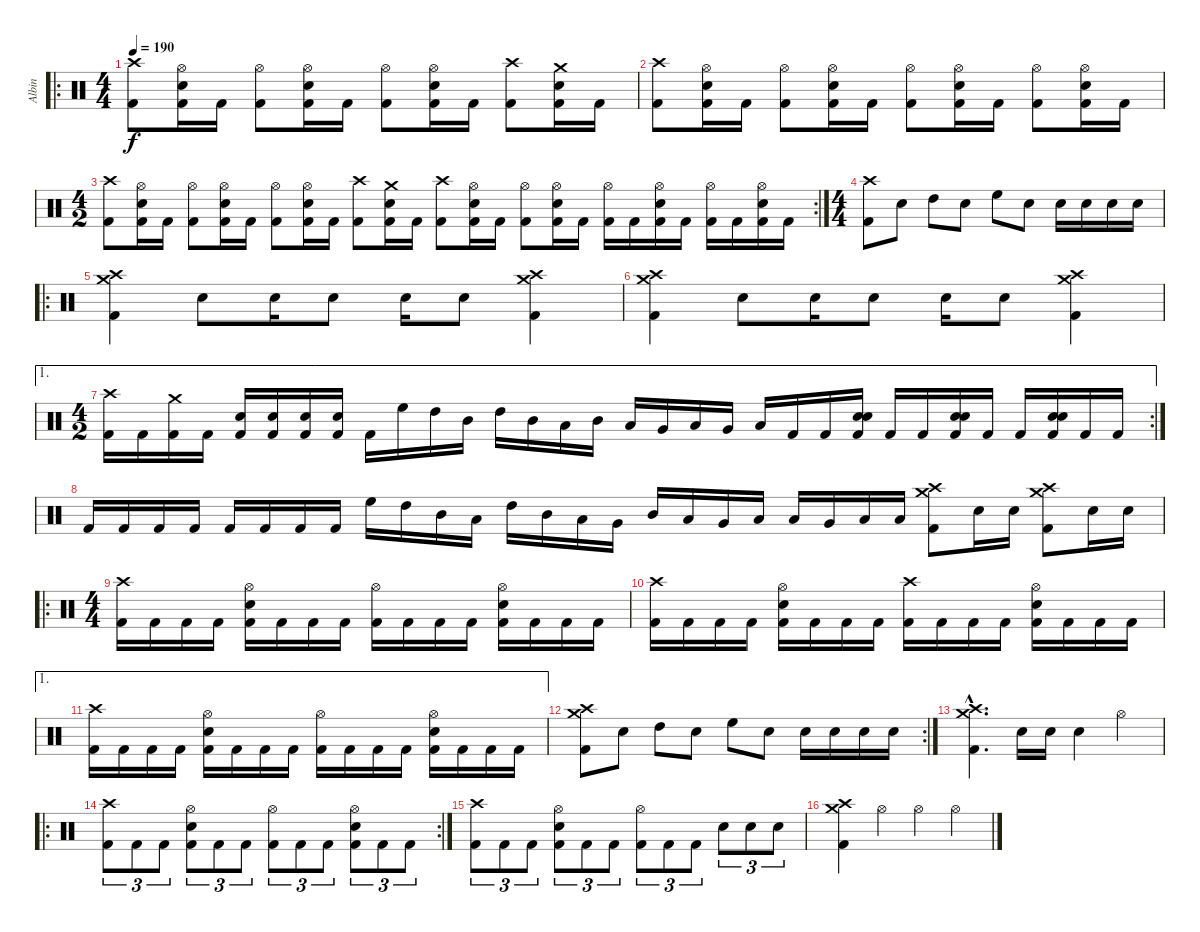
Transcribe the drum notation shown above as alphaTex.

\track ("Albin" "Albin") {instrument percussion}
\staff {score}
\articulation defaults
\ro
\ts (4 4)
\tempo 190
\clef neutral
\ks c
("Kick (hit) 2" "Crash high (hit)").8{dy f} ("Kick (hit) 2" "Electric Snare (hit)" "Hi-Hat (open)").16 "Kick (hit) 2".16 ("Kick (hit) 2" "Hi-Hat (open)").8 ("Kick (hit) 2" "Electric Snare (hit)" "Hi-Hat (open)").16 "Kick (hit) 2".16 ("Kick (hit) 2" "Hi-Hat (open)").8 ("Kick (hit) 2" "Electric Snare (hit)" "Hi-Hat (open)").16 "Kick (hit) 2".16 ("Kick (hit) 2" "Crash high (hit)").8 ("Kick (hit) 2" "Electric Snare (hit)" "Crash medium (hit)").16 "Kick (hit) 2".16 |
("Kick (hit) 2" "Crash high (hit)").8 ("Kick (hit) 2" "Electric Snare (hit)" "Hi-Hat (open)").16 "Kick (hit) 2".16 ("Kick (hit) 2" "Hi-Hat (open)").8 ("Kick (hit) 2" "Electric Snare (hit)" "Hi-Hat (open)").16 "Kick (hit) 2".16 ("Kick (hit) 2" "Hi-Hat (open)").8 ("Kick (hit) 2" "Electric Snare (hit)" "Hi-Hat (open)").16 "Kick (hit) 2".16 ("Kick (hit) 2" "Hi-Hat (open)").8 ("Kick (hit) 2" "Electric Snare (hit)" "Hi-Hat (open)").16 "Kick (hit) 2".16 |
\rc 2
\ts (4 2)
("Kick (hit) 2" "Crash high (hit)").8 ("Kick (hit) 2" "Electric Snare (hit)" "Hi-Hat (open)").16 "Kick (hit) 2".16 ("Kick (hit) 2" "Hi-Hat (open)").8 ("Kick (hit) 2" "Electric Snare (hit)" "Hi-Hat (open)").16 "Kick (hit) 2".16 ("Kick (hit) 2" "Hi-Hat (open)").8 ("Kick (hit) 2" "Electric Snare (hit)" "Hi-Hat (open)").16 "Kick (hit) 2".16 ("Kick (hit) 2" "Crash high (hit)").8 ("Kick (hit) 2" "Electric Snare (hit)" "Crash medium (hit)").16 "Kick (hit) 2".16 ("Kick (hit) 2" "Crash high (hit)").8 ("Kick (hit) 2" "Electric Snare (hit)" "Hi-Hat (open)").16 "Kick (hit) 2".16 ("Kick (hit) 2" "Hi-Hat (open)").8 ("Kick (hit) 2" "Electric Snare (hit)" "Hi-Hat (open)").16 "Kick (hit) 2".16 ("Kick (hit) 2" "Hi-Hat (open)").16 "Kick (hit) 2".16 ("Kick (hit) 2" "Electric Snare (hit)" "Hi-Hat (open)").16 "Kick (hit) 2".16 ("Kick (hit) 2" "Hi-Hat (open)").16 "Kick (hit) 2".16 ("Kick (hit) 2" "Electric Snare (hit)" "Hi-Hat (open)").16 "Kick (hit) 2".16 |
\ts (4 4)
("Kick (hit) 2" "Crash high (hit)").8 "Electric Snare (hit)".8 "High Tom (hit)".8 "Electric Snare (hit)".8 "High Floor Tom (hit)".8 "Electric Snare (hit)".8 "Electric Snare (hit)".16 "Electric Snare (hit)".16 "Electric Snare (hit)".16 "Electric Snare (hit)".16 |
\ro
("Kick (hit) 2" "Crash high (hit)" "Crash medium (hit)").4 "Electric Snare (hit)".8 "Electric Snare (hit)".16 "Electric Snare (hit)".8 "Electric Snare (hit)".16 "Electric Snare (hit)".8 ("Kick (hit) 2" "Crash high (hit)" "Crash medium (hit)").4 |
("Kick (hit) 2" "Crash high (hit)" "Crash medium (hit)").4 "Electric Snare (hit)".8 "Electric Snare (hit)".16 "Electric Snare (hit)".8 "Electric Snare (hit)".16 "Electric Snare (hit)".8 ("Kick (hit) 2" "Crash high (hit)" "Crash medium (hit)").4 |
\ae 1
\rc 2
\ts (4 2)
("Kick (hit) 2" "Crash high (hit)").16 "Kick (hit) 2".16 ("Kick (hit) 2" "Crash medium (hit)").16 "Kick (hit) 2".16 ("Kick (hit) 2" "Electric Snare (hit)").16 ("Kick (hit) 2" "Electric Snare (hit)").16 ("Kick (hit) 2" "Electric Snare (hit)").16 ("Kick (hit) 2" "Electric Snare (hit)").16 "Kick (hit) 2".16 "High Floor Tom (hit)".16 "High Tom (hit)".16 "Mid Tom (hit)".16 "High Tom (hit)".16 "Mid Tom (hit)".16 "Low Tom (hit)".16 "Mid Tom (hit)".16 "Low Tom (hit)".16 "Very Low Tom (hit)".16 "Low Tom (hit)".16 "Very Low Tom (hit)".16 "Low Floor Tom (hit)".16 "Kick (hit) 2".16 "Kick (hit) 2".16 ("Kick (hit) 2" "Electric Snare (hit)" "Electric Snare (hit)").16 "Kick (hit) 2".16 "Kick (hit) 2".16 ("Kick (hit) 2" "Electric Snare (hit)" "Electric Snare (hit)").16 "Kick (hit) 2".16 "Kick (hit) 2".16 ("Kick (hit) 2" "Electric Snare (hit)" "Electric Snare (hit)").16 "Kick (hit) 2".16 "Kick (hit) 2".16 |
"Kick (hit) 2".16 "Kick (hit) 2".16 "Kick (hit) 2".16 "Kick (hit) 2".16 "Kick (hit) 2".16 "Kick (hit) 2".16 "Kick (hit) 2".16 "Kick (hit) 2".16 "High Floor Tom (hit)".16 "High Tom (hit)".16 "Mid Tom (hit)".16 "Low Tom (hit)".16 "High Tom (hit)".16 "Mid Tom (hit)".16 "Low Tom (hit)".16 "Very Low Tom (hit)".16 "Mid Tom (hit)".16 "Low Tom (hit)".16 "Very Low Tom (hit)".16 "Low Floor Tom (hit)".16 "Low Tom (hit)".16 "Very Low Tom (hit)".16 "Low Floor Tom (hit)".16 "Low Floor Tom (hit)".16 ("Kick (hit) 2" "Crash high (hit)" "Crash medium (hit)").8 "Electric Snare (hit)".16 "Electric Snare (hit)".16 ("Kick (hit) 2" "Crash high (hit)" "Crash medium (hit)").8 "Electric Snare (hit)".16 "Electric Snare (hit)".16 |
\ro
\ts (4 4)
("Kick (hit) 2" "Crash high (hit)").16 "Kick (hit) 2".16 "Kick (hit) 2".16 "Kick (hit) 2".16 ("Kick (hit) 2" "Electric Snare (hit)" "Hi-Hat (open)").16 "Kick (hit) 2".16 "Kick (hit) 2".16 "Kick (hit) 2".16 ("Kick (hit) 2" "Hi-Hat (open)").16 "Kick (hit) 2".16 "Kick (hit) 2".16 "Kick (hit) 2".16 ("Kick (hit) 2" "Electric Snare (hit)" "Hi-Hat (open)").16 "Kick (hit) 2".16 "Kick (hit) 2".16 "Kick (hit) 2".16 |
("Kick (hit) 2" "Crash high (hit)").16 "Kick (hit) 2".16 "Kick (hit) 2".16 "Kick (hit) 2".16 ("Kick (hit) 2" "Electric Snare (hit)" "Hi-Hat (open)").16 "Kick (hit) 2".16 "Kick (hit) 2".16 "Kick (hit) 2".16 ("Kick (hit) 2" "Crash high (hit)").16 "Kick (hit) 2".16 "Kick (hit) 2".16 "Kick (hit) 2".16 ("Kick (hit) 2" "Electric Snare (hit)" "Hi-Hat (open)").16 "Kick (hit) 2".16 "Kick (hit) 2".16 "Kick (hit) 2".16 |
\ae 1
("Kick (hit) 2" "Crash high (hit)").16 "Kick (hit) 2".16 "Kick (hit) 2".16 "Kick (hit) 2".16 ("Kick (hit) 2" "Electric Snare (hit)" "Hi-Hat (open)").16 "Kick (hit) 2".16 "Kick (hit) 2".16 "Kick (hit) 2".16 ("Kick (hit) 2" "Hi-Hat (open)").16 "Kick (hit) 2".16 "Kick (hit) 2".16 "Kick (hit) 2".16 ("Kick (hit) 2" "Electric Snare (hit)" "Hi-Hat (open)").16 "Kick (hit) 2".16 "Kick (hit) 2".16 "Kick (hit) 2".16 |
\rc 2
("Kick (hit) 2" "Crash high (hit)" "Crash medium (hit)").8 "Electric Snare (hit)".8 "High Tom (hit)".8 "Electric Snare (hit)".8 "High Floor Tom (hit)".8 "Electric Snare (hit)".8 "Electric Snare (hit)".16 "Electric Snare (hit)".16 "Electric Snare (hit)".16 "Electric Snare (hit)".16 |
("Kick (hit) 2"{hac} "Crash high (hit)"{hac} "Crash medium (hit)"{hac}).4{d} "Electric Snare (hit)".16 "Electric Snare (hit)".16 "Electric Snare (hit)".4 "Hi-Hat (open)".4 |
\ro
\rc 2
("Kick (hit) 2" "Crash high (hit)").8{tu (3 2)} "Kick (hit) 2".8{tu (3 2)} "Kick (hit) 2".8{tu (3 2)} ("Kick (hit) 2" "Electric Snare (hit)" "Hi-Hat (open)").8{tu (3 2)} "Kick (hit) 2".8{tu (3 2)} "Kick (hit) 2".8{tu (3 2)} ("Kick (hit) 2" "Hi-Hat (open)").8{tu (3 2)} "Kick (hit) 2".8{tu (3 2)} "Kick (hit) 2".8{tu (3 2)} ("Kick (hit) 2" "Electric Snare (hit)" "Hi-Hat (open)").8{tu (3 2)} "Kick (hit) 2".8{tu (3 2)} "Kick (hit) 2".8{tu (3 2)} |
("Kick (hit) 2" "Crash high (hit)").8{tu (3 2)} "Kick (hit) 2".8{tu (3 2)} "Kick (hit) 2".8{tu (3 2)} ("Kick (hit) 2" "Electric Snare (hit)" "Hi-Hat (open)").8{tu (3 2)} "Kick (hit) 2".8{tu (3 2)} "Kick (hit) 2".8{tu (3 2)} ("Kick (hit) 2" "Hi-Hat (open)").8{tu (3 2)} "Kick (hit) 2".8{tu (3 2)} "Kick (hit) 2".8{tu (3 2)} "Electric Snare (hit)".8{tu (3 2)} "Electric Snare (hit)".8{tu (3 2)} "Electric Snare (hit)".8{tu (3 2)} |
("Kick (hit) 2" "Crash high (hit)" "Crash medium (hit)").4 "Hi-Hat (open)".4 "Hi-Hat (open)".4 "Hi-Hat (open)".4
